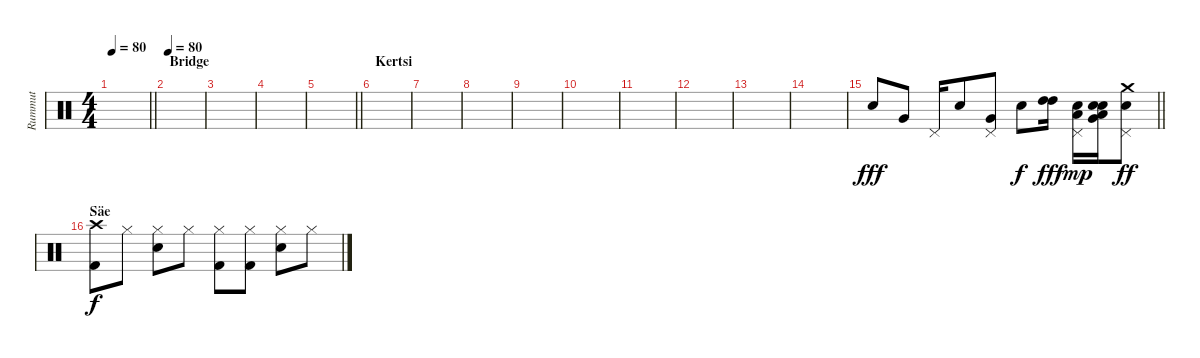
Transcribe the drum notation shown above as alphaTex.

\track ("Rummut" "Rummut") {instrument percussion}
\staff {score}
\articulation defaults
\ts (4 4)
\tempo 80
\clef neutral
\barLineRight lightlight
\ks c
|
\section ("" "Bridge")
\tempo 80
|
|
|
\barLineRight lightlight
|
\section ("" "Kertsi")
|
|
|
|
|
|
|
|
|
\barLineRight lightlight "Snare (hit) 2".8{dy fff} "Very Low Tom (hit)".8 "Pedal Hi-Hat (hit)".16 "Snare (hit) 2".8
("Very Low Tom (hit)" "Pedal Hi-Hat (hit)").8 "Snare (hit) 2".8{dy f} ("High Tom (hit)" "High Tom (hit)").16{dy fff} ("Low Tom (hit)" "Pedal Hi-Hat (hit)" "Electric Snare (hit)").16{dy mp} ("Low Tom (hit)" "Electric Snare (hit)" "Very Low Tom (hit)" "Electric Snare (hit)").16 ("Crash medium (hit)" "Electric Snare (hit)" "Pedal Hi-Hat (hit)").8{dy ff} |
\section ("" "Säe")
("Crash high (hit)" "Kick (hit) 2").8{dy f} "Hi-Hat (closed)".8 ("Hi-Hat (closed)" "Snare (hit) 2").8 "Hi-Hat (closed)".8 ("Hi-Hat (closed)" "Kick (hit) 2").8 ("Hi-Hat (closed)" "Kick (hit) 2").8 ("Hi-Hat (closed)" "Snare (hit) 2").8 "Hi-Hat (closed)".8
